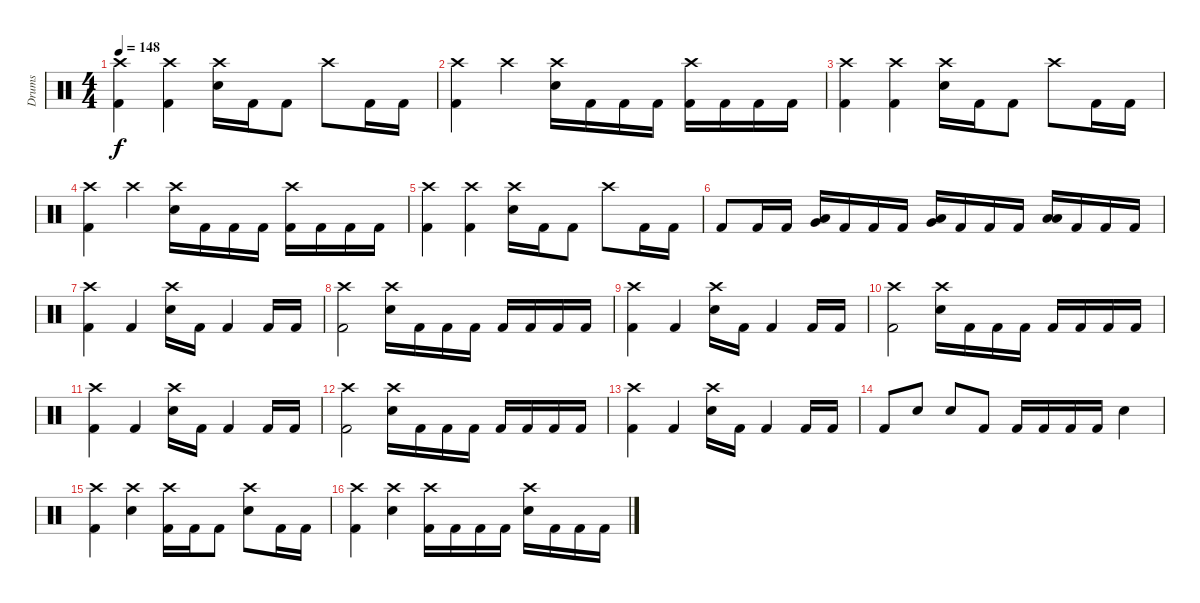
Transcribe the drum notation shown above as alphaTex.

\track ("Drums" "Drums") {instrument percussion}
\staff {score}
\articulation defaults
\ts (4 4)
\tempo 148
\clef neutral
\ks c
("Crash high (hit)" "Kick (hit) 2").4{dy f} ("Crash high (hit)" "Kick (hit) 2").4 ("Crash high (hit)" "Snare (hit) 2").16 "Kick (hit) 2".16 "Kick (hit) 2".8 "Crash high (hit)".8 "Kick (hit) 2".16 "Kick (hit) 2".16 |
("Crash high (hit)" "Kick (hit) 2").4 "Crash high (hit)".4 ("Crash high (hit)" "Snare (hit) 2").16 "Kick (hit) 2".16 "Kick (hit) 2".16 "Kick (hit) 2".16 ("Crash high (hit)" "Kick (hit) 2").16 "Kick (hit) 2".16 "Kick (hit) 2".16 "Kick (hit) 2".16 |
("Crash high (hit)" "Kick (hit) 2").4 ("Crash high (hit)" "Kick (hit) 2").4 ("Crash high (hit)" "Snare (hit) 2").16 "Kick (hit) 2".16 "Kick (hit) 2".8 "Crash high (hit)".8 "Kick (hit) 2".16 "Kick (hit) 2".16 |
("Crash high (hit)" "Kick (hit) 2").4 "Crash high (hit)".4 ("Crash high (hit)" "Snare (hit) 2").16 "Kick (hit) 2".16 "Kick (hit) 2".16 "Kick (hit) 2".16 ("Crash high (hit)" "Kick (hit) 2").16 "Kick (hit) 2".16 "Kick (hit) 2".16 "Kick (hit) 2".16 |
("Crash high (hit)" "Kick (hit) 2").4 ("Crash high (hit)" "Kick (hit) 2").4 ("Crash high (hit)" "Snare (hit) 2").16 "Kick (hit) 2".16 "Kick (hit) 2".8 "Crash high (hit)".8 "Kick (hit) 2".16 "Kick (hit) 2".16 |
"Kick (hit) 2".8 "Kick (hit) 2".16 "Kick (hit) 2".16 ("Low Tom (hit)" "Very Low Tom (hit)").16 "Kick (hit) 2".16 "Kick (hit) 2".16 "Kick (hit) 2".16 ("Very Low Tom (hit)" "Low Floor Tom (hit)").16 "Kick (hit) 2".16 "Kick (hit) 2".16 "Kick (hit) 2".16 ("Low Floor Tom (hit)" "Low Floor Tom (hit)").16 "Kick (hit) 2".16 "Kick (hit) 2".16 "Kick (hit) 2".16 |
("Crash high (hit)" "Kick (hit) 2").4 "Kick (hit) 2".4 ("Crash high (hit)" "Snare (hit) 2").16 "Kick (hit) 2".16 "Kick (hit) 2".4 "Kick (hit) 2".16 "Kick (hit) 2".16 |
("Crash high (hit)" "Kick (hit) 2").2 ("Crash high (hit)" "Snare (hit) 2").16 "Kick (hit) 2".16 "Kick (hit) 2".16 "Kick (hit) 2".16 "Kick (hit) 2".16 "Kick (hit) 2".16 "Kick (hit) 2".16 "Kick (hit) 2".16 |
("Crash high (hit)" "Kick (hit) 2").4 "Kick (hit) 2".4 ("Crash high (hit)" "Snare (hit) 2").16 "Kick (hit) 2".16 "Kick (hit) 2".4 "Kick (hit) 2".16 "Kick (hit) 2".16 |
("Crash high (hit)" "Kick (hit) 2").2 ("Crash high (hit)" "Snare (hit) 2").16 "Kick (hit) 2".16 "Kick (hit) 2".16 "Kick (hit) 2".16 "Kick (hit) 2".16 "Kick (hit) 2".16 "Kick (hit) 2".16 "Kick (hit) 2".16 |
("Crash high (hit)" "Kick (hit) 2").4 "Kick (hit) 2".4 ("Crash high (hit)" "Snare (hit) 2").16 "Kick (hit) 2".16 "Kick (hit) 2".4 "Kick (hit) 2".16 "Kick (hit) 2".16 |
("Crash high (hit)" "Kick (hit) 2").2 ("Crash high (hit)" "Snare (hit) 2").16 "Kick (hit) 2".16 "Kick (hit) 2".16 "Kick (hit) 2".16 "Kick (hit) 2".16 "Kick (hit) 2".16 "Kick (hit) 2".16 "Kick (hit) 2".16 |
("Crash high (hit)" "Kick (hit) 2").4 "Kick (hit) 2".4 ("Crash high (hit)" "Snare (hit) 2").16 "Kick (hit) 2".16 "Kick (hit) 2".4 "Kick (hit) 2".16 "Kick (hit) 2".16 |
"Kick (hit) 2".8 "Snare (hit) 2".8 "Snare (hit) 2".8 "Kick (hit) 2".8 "Kick (hit) 2".16 "Kick (hit) 2".16 "Kick (hit) 2".16 "Kick (hit) 2".16 "Snare (hit) 2".4 |
("Crash high (hit)" "Kick (hit) 2").4 ("Crash high (hit)" "Snare (hit) 2").4 ("Crash high (hit)" "Kick (hit) 2").16 "Kick (hit) 2".16 "Kick (hit) 2".8 ("Crash high (hit)" "Snare (hit) 2").8 "Kick (hit) 2".16 "Kick (hit) 2".16 |
("Crash high (hit)" "Kick (hit) 2").4 ("Crash high (hit)" "Snare (hit) 2").4 ("Crash high (hit)" "Kick (hit) 2").16 "Kick (hit) 2".16 "Kick (hit) 2".16 "Kick (hit) 2".16 ("Crash high (hit)" "Snare (hit) 2").16 "Kick (hit) 2".16 "Kick (hit) 2".16 "Kick (hit) 2".16
